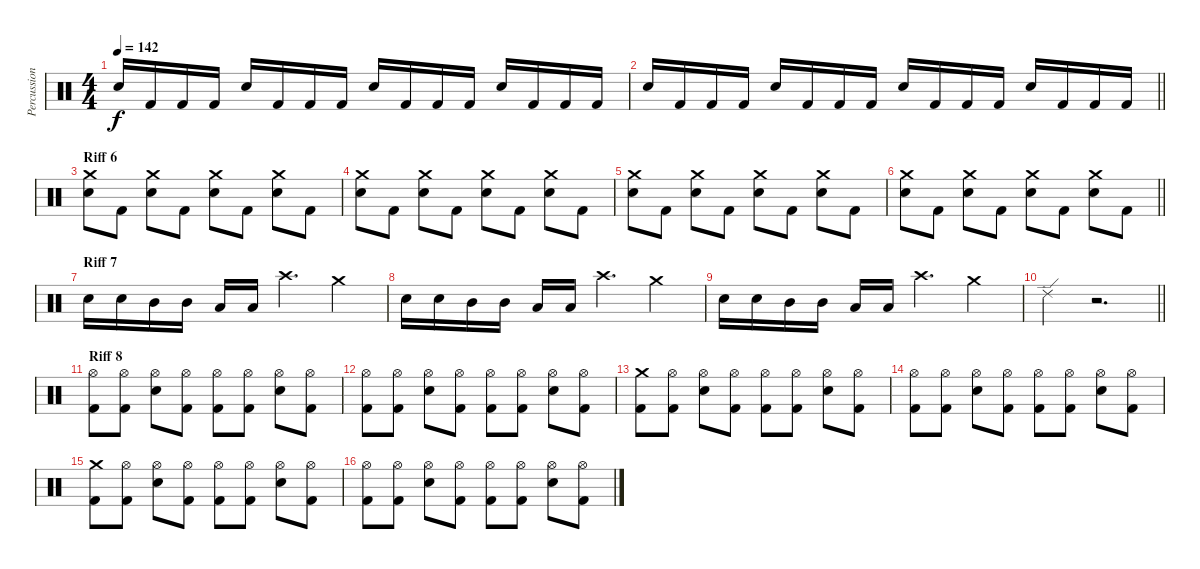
\track ("Percussions" "Percussion") {instrument percussion}
\staff {score}
\articulation defaults
\ts (4 4)
\tempo 142
\clef neutral
\ks c "Electric Snare (hit)".16{dy f} "Kick (hit) 2".16 "Kick (hit) 2".16 "Kick (hit) 2".16 "Electric Snare (hit)".16 "Kick (hit) 2".16 "Kick (hit) 2".16 "Kick (hit) 2".16 "Electric Snare (hit)".16 "Kick (hit) 2".16 "Kick (hit) 2".16 "Kick (hit) 2".16 "Electric Snare (hit)".16 "Kick (hit) 2".16 "Kick (hit) 2".16 "Kick (hit) 2".16
|
\barLineRight lightlight "Electric Snare (hit)".16 "Kick (hit) 2".16 "Kick (hit) 2".16 "Kick (hit) 2".16 "Electric Snare (hit)".16 "Kick (hit) 2".16 "Kick (hit) 2".16 "Kick (hit) 2".16 "Electric Snare (hit)".16 "Kick (hit) 2".16 "Kick (hit) 2".16 "Kick (hit) 2".16 "Electric Snare (hit)".16 "Kick (hit) 2".16 "Kick (hit) 2".16 "Kick (hit) 2".16
|
\section ("" "Riff 6")
("Crash medium (hit)" "Electric Snare (hit)").8 "Kick (hit) 2".8 ("Crash medium (hit)" "Electric Snare (hit)").8 "Kick (hit) 2".8 ("Crash medium (hit)" "Electric Snare (hit)").8 "Kick (hit) 2".8 ("Crash medium (hit)" "Electric Snare (hit)").8 "Kick (hit) 2".8 |
("Crash medium (hit)" "Electric Snare (hit)").8 "Kick (hit) 2".8 ("Crash medium (hit)" "Electric Snare (hit)").8 "Kick (hit) 2".8 ("Crash medium (hit)" "Electric Snare (hit)").8 "Kick (hit) 2".8 ("Crash medium (hit)" "Electric Snare (hit)").8 "Kick (hit) 2".8 |
("Crash medium (hit)" "Electric Snare (hit)").8 "Kick (hit) 2".8 ("Crash medium (hit)" "Electric Snare (hit)").8 "Kick (hit) 2".8 ("Crash medium (hit)" "Electric Snare (hit)").8 "Kick (hit) 2".8 ("Crash medium (hit)" "Electric Snare (hit)").8 "Kick (hit) 2".8 |
\barLineRight lightlight
("Crash medium (hit)" "Electric Snare (hit)").8 "Kick (hit) 2".8 ("Crash medium (hit)" "Electric Snare (hit)").8 "Kick (hit) 2".8 ("Crash medium (hit)" "Electric Snare (hit)").8 "Kick (hit) 2".8 ("Crash medium (hit)" "Electric Snare (hit)").8 "Kick (hit) 2".8 |
\section ("" "Riff 7")
"Electric Snare (hit)".16 "Electric Snare (hit)".16 "Mid Tom (hit)".16 "Mid Tom (hit)".16 "Low Tom (hit)".16 "Low Tom (hit)".16 "Crash high (hit)".4{d} "Crash medium (hit)".4 |
"Electric Snare (hit)".16 "Electric Snare (hit)".16 "Mid Tom (hit)".16 "Mid Tom (hit)".16 "Low Tom (hit)".16 "Low Tom (hit)".16 "Crash high (hit)".4{d} "Crash medium (hit)".4 |
"Electric Snare (hit)".16 "Electric Snare (hit)".16 "Mid Tom (hit)".16 "Mid Tom (hit)".16 "Low Tom (hit)".16 "Low Tom (hit)".16 "Crash high (hit)".4{d} "Crash medium (hit)".4 |
\barLineRight lightlight "Ride (edge) 2".4
r.2{d} |
\section ("" "Riff 8")
("Hi-Hat (open)" "Kick (hit) 2").8 ("Hi-Hat (open)" "Kick (hit) 2").8 ("Hi-Hat (open)" "Electric Snare (hit)").8 ("Hi-Hat (open)" "Kick (hit) 2").8 ("Hi-Hat (open)" "Kick (hit) 2").8 ("Hi-Hat (open)" "Kick (hit) 2").8 ("Hi-Hat (open)" "Electric Snare (hit)").8 ("Hi-Hat (open)" "Kick (hit) 2").8 |
("Hi-Hat (open)" "Kick (hit) 2").8 ("Hi-Hat (open)" "Kick (hit) 2").8 ("Hi-Hat (open)" "Electric Snare (hit)").8 ("Hi-Hat (open)" "Kick (hit) 2").8 ("Hi-Hat (open)" "Kick (hit) 2").8 ("Hi-Hat (open)" "Kick (hit) 2").8 ("Hi-Hat (open)" "Electric Snare (hit)").8 ("Hi-Hat (open)" "Kick (hit) 2").8 |
("Crash medium (hit)" "Kick (hit) 2").8 ("Hi-Hat (open)" "Kick (hit) 2").8 ("Hi-Hat (open)" "Electric Snare (hit)").8 ("Hi-Hat (open)" "Kick (hit) 2").8 ("Hi-Hat (open)" "Kick (hit) 2").8 ("Hi-Hat (open)" "Kick (hit) 2").8 ("Hi-Hat (open)" "Electric Snare (hit)").8 ("Hi-Hat (open)" "Kick (hit) 2").8 |
("Hi-Hat (open)" "Kick (hit) 2").8 ("Hi-Hat (open)" "Kick (hit) 2").8 ("Hi-Hat (open)" "Electric Snare (hit)").8 ("Hi-Hat (open)" "Kick (hit) 2").8 ("Hi-Hat (open)" "Kick (hit) 2").8 ("Hi-Hat (open)" "Kick (hit) 2").8 ("Hi-Hat (open)" "Electric Snare (hit)").8 ("Hi-Hat (open)" "Kick (hit) 2").8 |
("Crash medium (hit)" "Kick (hit) 2").8 ("Hi-Hat (open)" "Kick (hit) 2").8 ("Hi-Hat (open)" "Electric Snare (hit)").8 ("Hi-Hat (open)" "Kick (hit) 2").8 ("Hi-Hat (open)" "Kick (hit) 2").8 ("Hi-Hat (open)" "Kick (hit) 2").8 ("Hi-Hat (open)" "Electric Snare (hit)").8 ("Hi-Hat (open)" "Kick (hit) 2").8 |
("Hi-Hat (open)" "Kick (hit) 2").8 ("Hi-Hat (open)" "Kick (hit) 2").8 ("Hi-Hat (open)" "Electric Snare (hit)").8 ("Hi-Hat (open)" "Kick (hit) 2").8 ("Hi-Hat (open)" "Kick (hit) 2").8 ("Hi-Hat (open)" "Kick (hit) 2").8 ("Hi-Hat (open)" "Electric Snare (hit)").8 ("Hi-Hat (open)" "Kick (hit) 2").8
